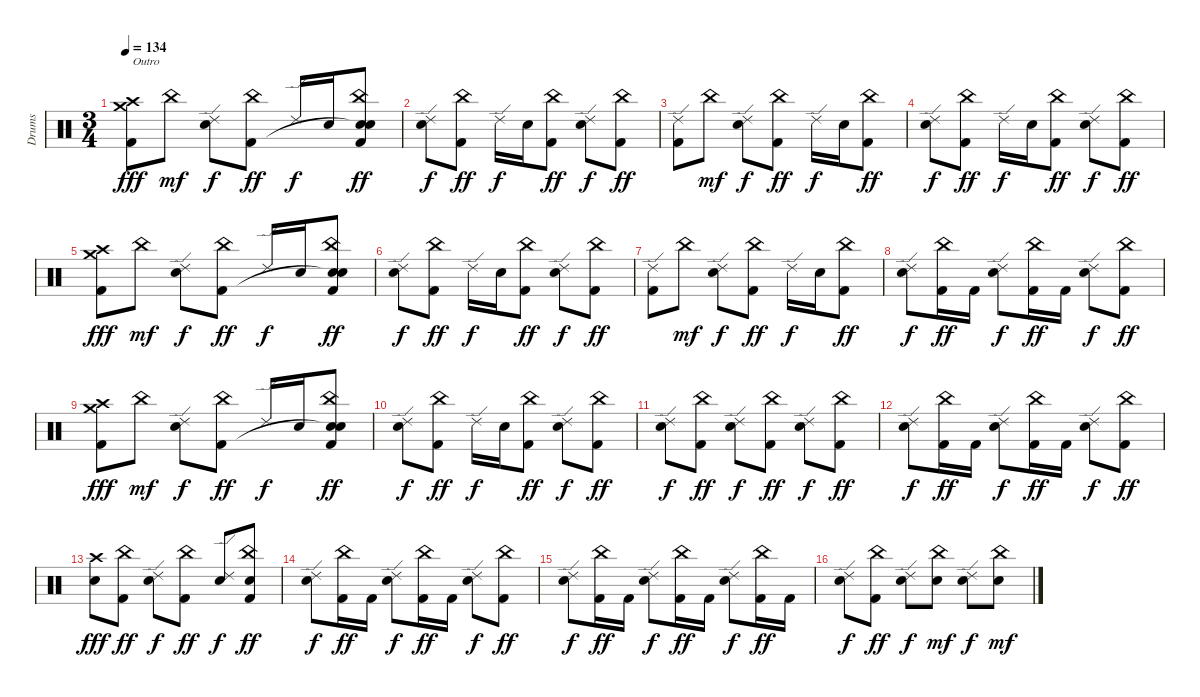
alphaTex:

\track ("Drums" "Drums") {instrument percussion}
\staff {score}
\articulation defaults
\ts (3 4)
\tempo 134
\clef neutral
\ks c
("Crash medium (hit)" "Kick (hit) 2" "Crash high (hit)").8{txt "Outro" dy fff} "China (hit)".8{dy mf} ("Ride (edge) 2" "Snare (hit) 2").8{dy f} ("China (hit)" "Kick (hit) 2").8{dy ff} "Ride (edge) 2".16{dy f} "Snare (hit) 2".16 ("China (hit)" "Snare (hit)"{t} "Kick (hit) 2" "Snare (hit)").8{dy ff} |
("Ride (edge) 2" "Snare (hit) 2").8{dy f} ("China (hit)" "Kick (hit) 2").8{dy ff} "Ride (edge) 2".16{dy f} "Snare (hit) 2".16 ("China (hit)" "Kick (hit) 2").8{dy ff} ("Ride (edge) 2" "Snare (hit) 2").8{dy f} ("China (hit)" "Kick (hit) 2").8{dy ff} |
("Ride (edge) 2" "Kick (hit) 2").8 "China (hit)".8{dy mf} ("Ride (edge) 2" "Snare (hit) 2").8{dy f} ("China (hit)" "Kick (hit) 2").8{dy ff} "Ride (edge) 2".16{dy f} "Snare (hit) 2".16 ("China (hit)" "Kick (hit) 2").8{dy ff} |
("Ride (edge) 2" "Snare (hit) 2").8{dy f} ("China (hit)" "Kick (hit) 2").8{dy ff} "Ride (edge) 2".16{dy f} "Snare (hit) 2".16 ("China (hit)" "Kick (hit) 2").8{dy ff} ("Ride (edge) 2" "Snare (hit) 2").8{dy f} ("China (hit)" "Kick (hit) 2").8{dy ff} |
("Crash medium (hit)" "Kick (hit) 2" "Crash high (hit)").8{dy fff} "China (hit)".8{dy mf} ("Ride (edge) 2" "Snare (hit) 2").8{dy f} ("China (hit)" "Kick (hit) 2").8{dy ff} "Ride (edge) 2".16{dy f} "Snare (hit) 2".16 ("China (hit)" "Snare (hit)"{t} "Kick (hit) 2" "Snare (hit)").8{dy ff} |
("Ride (edge) 2" "Snare (hit) 2").8{dy f} ("China (hit)" "Kick (hit) 2").8{dy ff} "Ride (edge) 2".16{dy f} "Snare (hit) 2".16 ("China (hit)" "Kick (hit) 2").8{dy ff} ("Ride (edge) 2" "Snare (hit) 2").8{dy f} ("China (hit)" "Kick (hit) 2").8{dy ff} |
("Ride (edge) 2" "Kick (hit) 2").8 "China (hit)".8{dy mf} ("Ride (edge) 2" "Snare (hit) 2").8{dy f} ("China (hit)" "Kick (hit) 2").8{dy ff} "Ride (edge) 2".16{dy f} "Snare (hit) 2".16 ("China (hit)" "Kick (hit) 2").8{dy ff} |
("Ride (edge) 2" "Snare (hit) 2").8{dy f} ("China (hit)" "Kick (hit) 2").16{dy ff} "Kick (hit) 2".16 ("Ride (edge) 2" "Snare (hit) 2").8{dy f} ("China (hit)" "Kick (hit) 2").16{dy ff} "Kick (hit) 2".16 ("Ride (edge) 2" "Snare (hit) 2").8{dy f} ("China (hit)" "Kick (hit) 2").8{dy ff} |
("Crash medium (hit)" "Kick (hit) 2" "Crash high (hit)").8{dy fff} "China (hit)".8{dy mf} ("Ride (edge) 2" "Snare (hit) 2").8{dy f} ("China (hit)" "Kick (hit) 2").8{dy ff} "Ride (edge) 2".16{dy f} "Snare (hit) 2".16 ("China (hit)" "Snare (hit)"{t} "Kick (hit) 2" "Snare (hit)").8{dy ff} |
("Ride (edge) 2" "Snare (hit) 2").8{dy f} ("China (hit)" "Kick (hit) 2").8{dy ff} "Ride (edge) 2".16{dy f} "Snare (hit) 2".16 ("China (hit)" "Kick (hit) 2").8{dy ff} ("Ride (edge) 2" "Snare (hit) 2").8{dy f} ("China (hit)" "Kick (hit) 2").8{dy ff} |
("Ride (edge) 2" "Snare (hit) 2").8{dy f} ("China (hit)" "Kick (hit) 2").8{dy ff} ("Ride (edge) 2" "Snare (hit) 2").8{dy f} ("China (hit)" "Kick (hit) 2").8{dy ff} ("Ride (edge) 2" "Snare (hit) 2").8{dy f} ("China (hit)" "Kick (hit) 2").8{dy ff} |
("Ride (edge) 2" "Snare (hit) 2").8{dy f} ("China (hit)" "Kick (hit) 2").16{dy ff} "Kick (hit) 2".16 ("Ride (edge) 2" "Snare (hit) 2").8{dy f} ("China (hit)" "Kick (hit) 2").16{dy ff} "Kick (hit) 2".16 ("Ride (edge) 2" "Snare (hit) 2").8{dy f} ("China (hit)" "Kick (hit) 2").8{dy ff} |
("Snare (hit) 2" "Crash high (hit)").8{dy fff} ("China (hit)" "Kick (hit) 2").8{dy ff} ("Ride (edge) 2" "Snare (hit) 2").8{dy f} ("China (hit)" "Kick (hit) 2").8{dy ff} ("Ride (edge) 2" "Snare (hit) 2").8{dy f} ("China (hit)" "Kick (hit) 2" "Snare (hit)").8{dy ff} |
("Ride (edge) 2" "Snare (hit) 2").8{dy f} ("China (hit)" "Kick (hit) 2").16{dy ff} "Kick (hit) 2".16 ("Ride (edge) 2" "Snare (hit) 2").8{dy f} ("China (hit)" "Kick (hit) 2").16{dy ff} "Kick (hit) 2".16 ("Ride (edge) 2" "Snare (hit) 2").8{dy f} ("China (hit)" "Kick (hit) 2").8{dy ff} |
("Ride (edge) 2" "Snare (hit) 2").8{dy f} ("China (hit)" "Kick (hit) 2").16{dy ff} "Kick (hit) 2".16 ("Ride (edge) 2" "Snare (hit) 2").8{dy f} ("China (hit)" "Kick (hit) 2").16{dy ff} "Kick (hit) 2".16 ("Ride (edge) 2" "Snare (hit) 2").8{dy f} ("China (hit)" "Kick (hit) 2").16{dy ff} "Kick (hit) 2".16 |
("Ride (edge) 2" "Snare (hit) 2").8{dy f} ("China (hit)" "Kick (hit) 2").8{dy ff} ("Ride (edge) 2" "Snare (hit) 2").8{dy f} ("China (hit)" "Snare (hit) 2").8{dy mf} ("Ride (edge) 2" "Snare (hit) 2").8{dy f} ("China (hit)" "Snare (hit) 2").8{dy mf}
